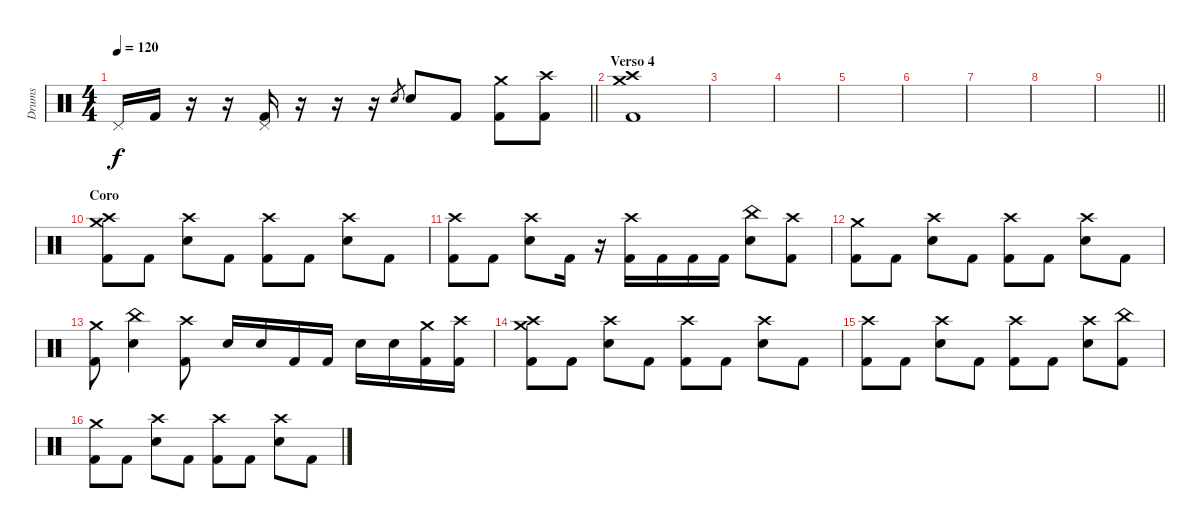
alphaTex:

\track ("Drums " "Drums ") {instrument percussion}
\staff {score}
\articulation defaults
\ts (4 4)
\tempo 120
\clef neutral
\barLineRight lightlight
\ks c "Pedal Hi-Hat (hit)".16{dy f} "Kick (hit) 2".16
r.16 r.16 ("Pedal Hi-Hat (hit)" "Kick (hit) 2").16 r.16 r.16 r.16 "Electric Snare (hit)".8{gr} "Electric Snare (hit)".8 "Kick (hit) 2".8 ("Crash medium (hit)" "Kick (hit) 2").8 ("Crash high (hit)" "Kick (hit) 2").8 |
\section ("" "Verso 4")
("Crash medium (hit)" "Crash high (hit)" "Kick (hit) 2").1 |
|
|
|
|
|
|
\barLineRight lightlight
|
\section ("" "Coro")
("Crash high (hit)" "Crash medium (hit)" "Kick (hit) 2").8 "Kick (hit) 2".8 ("Crash high (hit)" "Electric Snare (hit)").8 "Kick (hit) 2".8 ("Crash high (hit)" "Kick (hit) 2").8 "Kick (hit) 2".8 ("Crash high (hit)" "Electric Snare (hit)").8 "Kick (hit) 2".8 |
("Crash high (hit)" "Kick (hit) 2").8 "Kick (hit) 2".8 ("Crash high (hit)" "Electric Snare (hit)").8 "Kick (hit) 2".16 r.16 ("Crash high (hit)" "Kick (hit) 2").16 "Kick (hit) 2".16 "Kick (hit) 2".16 "Kick (hit) 2".16 ("China (hit)" "Electric Snare (hit)").8 ("Crash high (hit)" "Kick (hit) 2").8 |
("Crash medium (hit)" "Kick (hit) 2").8 "Kick (hit) 2".8 ("Crash high (hit)" "Electric Snare (hit)").8 "Kick (hit) 2".8 ("Crash high (hit)" "Kick (hit) 2").8 "Kick (hit) 2".8 ("Crash high (hit)" "Electric Snare (hit)").8 "Kick (hit) 2".8 |
("Crash medium (hit)" "Kick (hit) 2").8 ("China (hit)" "Electric Snare (hit)").4 ("Crash high (hit)" "Kick (hit) 2").8 "Electric Snare (hit)".16 "Electric Snare (hit)".16 "Kick (hit) 2".16 "Kick (hit) 2".16 "Electric Snare (hit)".16 "Electric Snare (hit)".16 ("Crash medium (hit)" "Kick (hit) 2").16 ("Crash high (hit)" "Kick (hit) 2").16 |
("Crash high (hit)" "Crash medium (hit)" "Kick (hit) 2").8 "Kick (hit) 2".8 ("Crash high (hit)" "Electric Snare (hit)").8 "Kick (hit) 2".8 ("Crash high (hit)" "Kick (hit) 2").8 "Kick (hit) 2".8 ("Crash high (hit)" "Electric Snare (hit)").8 "Kick (hit) 2".8 |
("Crash high (hit)" "Kick (hit) 2").8 "Kick (hit) 2".8 ("Crash high (hit)" "Electric Snare (hit)").8 "Kick (hit) 2".8 ("Crash high (hit)" "Kick (hit) 2").8 "Kick (hit) 2".8 ("Crash high (hit)" "Electric Snare (hit)").8 ("China (hit)" "Kick (hit) 2").8 |
("Crash medium (hit)" "Kick (hit) 2").8 "Kick (hit) 2".8 ("Crash high (hit)" "Electric Snare (hit)").8 "Kick (hit) 2".8 ("Crash high (hit)" "Kick (hit) 2").8 "Kick (hit) 2".8 ("Crash high (hit)" "Electric Snare (hit)").8 "Kick (hit) 2".8
